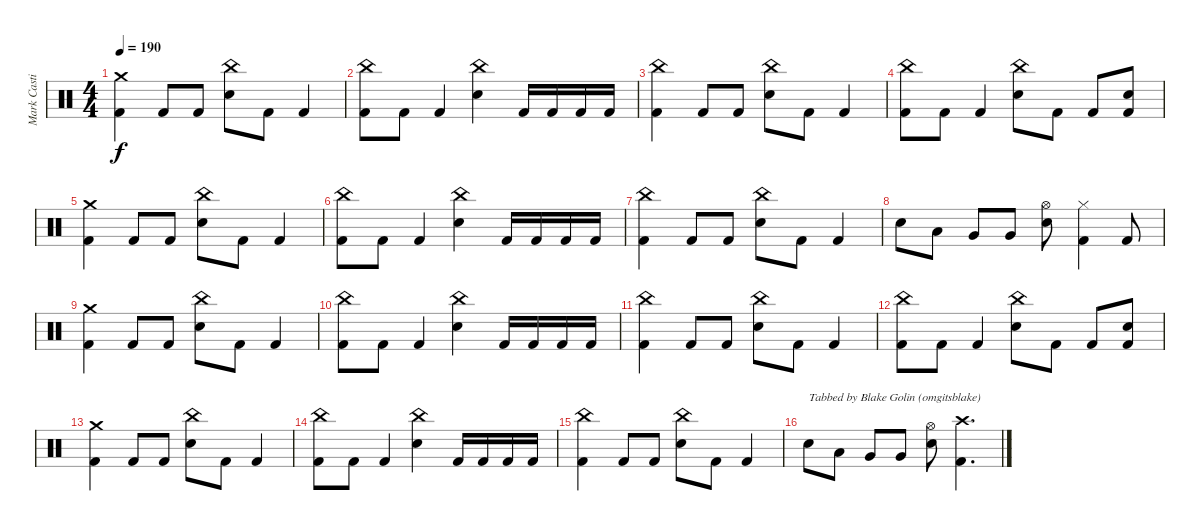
\track ("Mark Castillo" "Mark Casti") {instrument percussion}
\staff {score}
\articulation defaults
\ts (4 4)
\tempo 190
\clef neutral
\ks c
("Crash medium (hit)" "Kick (hit) 2").4{dy f} "Kick (hit) 2".8 "Kick (hit) 2".8 ("China (hit)" "Electric Snare (hit)").8 "Kick (hit) 2".8 "Kick (hit) 2".4 |
("China (hit)" "Kick (hit) 2").8 "Kick (hit) 2".8 "Kick (hit) 2".4 ("China (hit)" "Electric Snare (hit)").4 "Kick (hit) 2".16 "Kick (hit) 2".16 "Kick (hit) 2".16 "Kick (hit) 2".16 |
("China (hit)" "Kick (hit) 2").4 "Kick (hit) 2".8 "Kick (hit) 2".8 ("China (hit)" "Electric Snare (hit)").8 "Kick (hit) 2".8 "Kick (hit) 2".4 |
("China (hit)" "Kick (hit) 2").8 "Kick (hit) 2".8 "Kick (hit) 2".4 ("China (hit)" "Electric Snare (hit)").8 "Kick (hit) 2".8 "Kick (hit) 2".8 ("Electric Snare (hit)" "Kick (hit) 2").8 |
("Crash medium (hit)" "Kick (hit) 2").4 "Kick (hit) 2".8 "Kick (hit) 2".8 ("China (hit)" "Electric Snare (hit)").8 "Kick (hit) 2".8 "Kick (hit) 2".4 |
("China (hit)" "Kick (hit) 2").8 "Kick (hit) 2".8 "Kick (hit) 2".4 ("China (hit)" "Electric Snare (hit)").4 "Kick (hit) 2".16 "Kick (hit) 2".16 "Kick (hit) 2".16 "Kick (hit) 2".16 |
("China (hit)" "Kick (hit) 2").4 "Kick (hit) 2".8 "Kick (hit) 2".8 ("China (hit)" "Electric Snare (hit)").8 "Kick (hit) 2".8 "Kick (hit) 2".4 |
"Electric Snare (hit)".8 "Low Tom (hit)".8 "Very Low Tom (hit)".8 "Very Low Tom (hit)".8 ("Hi-Hat (open)" "Electric Snare (hit)").8 ("Hi-Hat (closed)" "Kick (hit) 2").4 "Kick (hit) 2".8 |
("Crash medium (hit)" "Kick (hit) 2").4 "Kick (hit) 2".8 "Kick (hit) 2".8 ("China (hit)" "Electric Snare (hit)").8 "Kick (hit) 2".8 "Kick (hit) 2".4 |
("China (hit)" "Kick (hit) 2").8 "Kick (hit) 2".8 "Kick (hit) 2".4 ("China (hit)" "Electric Snare (hit)").4 "Kick (hit) 2".16 "Kick (hit) 2".16 "Kick (hit) 2".16 "Kick (hit) 2".16 |
("China (hit)" "Kick (hit) 2").4 "Kick (hit) 2".8 "Kick (hit) 2".8 ("China (hit)" "Electric Snare (hit)").8 "Kick (hit) 2".8 "Kick (hit) 2".4 |
("China (hit)" "Kick (hit) 2").8 "Kick (hit) 2".8 "Kick (hit) 2".4 ("China (hit)" "Electric Snare (hit)").8 "Kick (hit) 2".8 "Kick (hit) 2".8 ("Electric Snare (hit)" "Kick (hit) 2").8 |
("Crash medium (hit)" "Kick (hit) 2").4 "Kick (hit) 2".8 "Kick (hit) 2".8 ("China (hit)" "Electric Snare (hit)").8 "Kick (hit) 2".8 "Kick (hit) 2".4 |
("China (hit)" "Kick (hit) 2").8 "Kick (hit) 2".8 "Kick (hit) 2".4 ("China (hit)" "Electric Snare (hit)").4 "Kick (hit) 2".16 "Kick (hit) 2".16 "Kick (hit) 2".16 "Kick (hit) 2".16 |
("China (hit)" "Kick (hit) 2").4 "Kick (hit) 2".8 "Kick (hit) 2".8 ("China (hit)" "Electric Snare (hit)").8 "Kick (hit) 2".8 "Kick (hit) 2".4 |
"Electric Snare (hit)".8{txt "Tabbed by Blake Golin (omgitsblake)"} "Low Tom (hit)".8 "Very Low Tom (hit)".8 "Very Low Tom (hit)".8 ("Hi-Hat (open)" "Electric Snare (hit)").8 ("Crash high (hit)" "Kick (hit) 2").4{d}
